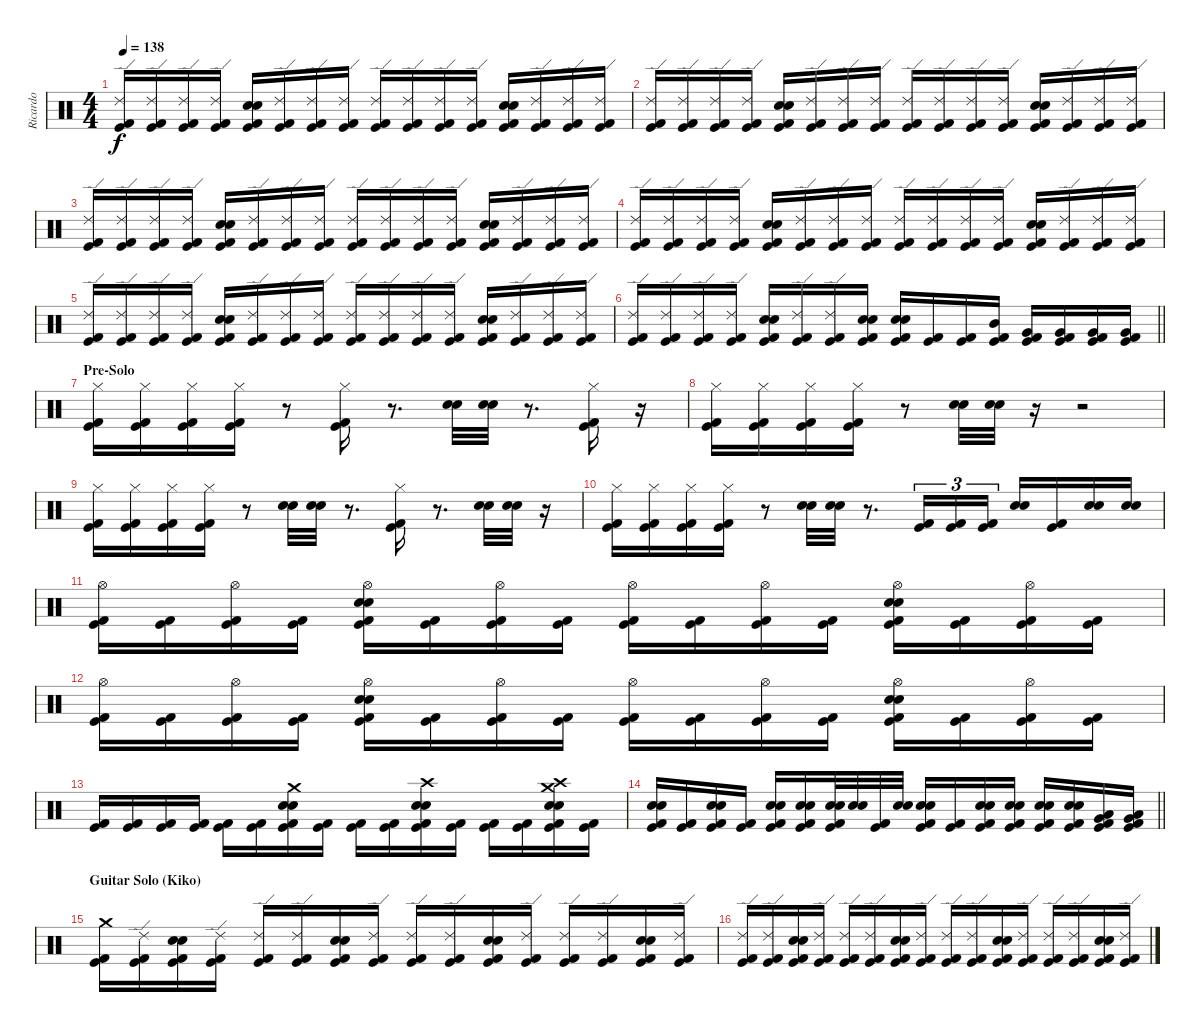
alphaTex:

\track ("Ricardo" "Ricardo") {instrument percussion}
\staff {score}
\articulation defaults
\ts (4 4)
\tempo 138
\clef neutral
\ks c
("Ride (edge) 2" "Kick (hit) 2" "Kick (hit)").16{dy f} ("Ride (edge) 2" "Kick (hit) 2" "Kick (hit)").16 ("Ride (edge) 2" "Kick (hit) 2" "Kick (hit)").16 ("Ride (edge) 2" "Kick (hit) 2" "Kick (hit)").16 ("Electric Snare (hit)" "Snare (hit) 2" "Kick (hit) 2" "Kick (hit)").16 ("Ride (edge) 2" "Kick (hit) 2" "Kick (hit)").16 ("Ride (edge) 2" "Kick (hit) 2" "Kick (hit)").16 ("Ride (edge) 2" "Kick (hit) 2" "Kick (hit)").16 ("Ride (edge) 2" "Kick (hit) 2" "Kick (hit)").16 ("Ride (edge) 2" "Kick (hit) 2" "Kick (hit)").16 ("Ride (edge) 2" "Kick (hit) 2" "Kick (hit)").16 ("Ride (edge) 2" "Kick (hit) 2" "Kick (hit)").16 ("Electric Snare (hit)" "Snare (hit) 2" "Kick (hit) 2" "Kick (hit)").16 ("Ride (edge) 2" "Kick (hit) 2" "Kick (hit)").16 ("Ride (edge) 2" "Kick (hit) 2" "Kick (hit)").16 ("Ride (edge) 2" "Kick (hit) 2" "Kick (hit)").16 |
("Ride (edge) 2" "Kick (hit) 2" "Kick (hit)").16 ("Ride (edge) 2" "Kick (hit) 2" "Kick (hit)").16 ("Ride (edge) 2" "Kick (hit) 2" "Kick (hit)").16 ("Ride (edge) 2" "Kick (hit) 2" "Kick (hit)").16 ("Electric Snare (hit)" "Snare (hit) 2" "Kick (hit) 2" "Kick (hit)").16 ("Ride (edge) 2" "Kick (hit) 2" "Kick (hit)").16 ("Ride (edge) 2" "Kick (hit) 2" "Kick (hit)").16 ("Ride (edge) 2" "Kick (hit) 2" "Kick (hit)").16 ("Ride (edge) 2" "Kick (hit) 2" "Kick (hit)").16 ("Ride (edge) 2" "Kick (hit) 2" "Kick (hit)").16 ("Ride (edge) 2" "Kick (hit) 2" "Kick (hit)").16 ("Ride (edge) 2" "Kick (hit) 2" "Kick (hit)").16 ("Electric Snare (hit)" "Snare (hit) 2" "Kick (hit) 2" "Kick (hit)").16 ("Ride (edge) 2" "Kick (hit) 2" "Kick (hit)").16 ("Ride (edge) 2" "Kick (hit) 2" "Kick (hit)").16 ("Ride (edge) 2" "Kick (hit) 2" "Kick (hit)").16 |
("Ride (edge) 2" "Kick (hit) 2" "Kick (hit)").16 ("Ride (edge) 2" "Kick (hit) 2" "Kick (hit)").16 ("Ride (edge) 2" "Kick (hit) 2" "Kick (hit)").16 ("Ride (edge) 2" "Kick (hit) 2" "Kick (hit)").16 ("Electric Snare (hit)" "Snare (hit) 2" "Kick (hit) 2" "Kick (hit)").16 ("Ride (edge) 2" "Kick (hit) 2" "Kick (hit)").16 ("Ride (edge) 2" "Kick (hit) 2" "Kick (hit)").16 ("Ride (edge) 2" "Kick (hit) 2" "Kick (hit)").16 ("Ride (edge) 2" "Kick (hit) 2" "Kick (hit)").16 ("Ride (edge) 2" "Kick (hit) 2" "Kick (hit)").16 ("Ride (edge) 2" "Kick (hit) 2" "Kick (hit)").16 ("Ride (edge) 2" "Kick (hit) 2" "Kick (hit)").16 ("Electric Snare (hit)" "Snare (hit) 2" "Kick (hit) 2" "Kick (hit)").16 ("Ride (edge) 2" "Kick (hit) 2" "Kick (hit)").16 ("Ride (edge) 2" "Kick (hit) 2" "Kick (hit)").16 ("Ride (edge) 2" "Kick (hit) 2" "Kick (hit)").16 |
("Ride (edge) 2" "Kick (hit) 2" "Kick (hit)").16 ("Ride (edge) 2" "Kick (hit) 2" "Kick (hit)").16 ("Ride (edge) 2" "Kick (hit) 2" "Kick (hit)").16 ("Ride (edge) 2" "Kick (hit) 2" "Kick (hit)").16 ("Electric Snare (hit)" "Snare (hit) 2" "Kick (hit) 2" "Kick (hit)").16 ("Ride (edge) 2" "Kick (hit) 2" "Kick (hit)").16 ("Ride (edge) 2" "Kick (hit) 2" "Kick (hit)").16 ("Ride (edge) 2" "Kick (hit) 2" "Kick (hit)").16 ("Ride (edge) 2" "Kick (hit) 2" "Kick (hit)").16 ("Ride (edge) 2" "Kick (hit) 2" "Kick (hit)").16 ("Ride (edge) 2" "Kick (hit) 2" "Kick (hit)").16 ("Ride (edge) 2" "Kick (hit) 2" "Kick (hit)").16 ("Electric Snare (hit)" "Snare (hit) 2" "Kick (hit) 2" "Kick (hit)").16 ("Ride (edge) 2" "Kick (hit) 2" "Kick (hit)").16 ("Ride (edge) 2" "Kick (hit) 2" "Kick (hit)").16 ("Ride (edge) 2" "Kick (hit) 2" "Kick (hit)").16 |
("Ride (edge) 2" "Kick (hit) 2" "Kick (hit)").16 ("Ride (edge) 2" "Kick (hit) 2" "Kick (hit)").16 ("Ride (edge) 2" "Kick (hit) 2" "Kick (hit)").16 ("Ride (edge) 2" "Kick (hit) 2" "Kick (hit)").16 ("Electric Snare (hit)" "Snare (hit) 2" "Kick (hit) 2" "Kick (hit)").16 ("Ride (edge) 2" "Kick (hit) 2" "Kick (hit)").16 ("Ride (edge) 2" "Kick (hit) 2" "Kick (hit)").16 ("Ride (edge) 2" "Kick (hit) 2" "Kick (hit)").16 ("Ride (edge) 2" "Kick (hit) 2" "Kick (hit)").16 ("Ride (edge) 2" "Kick (hit) 2" "Kick (hit)").16 ("Ride (edge) 2" "Kick (hit) 2" "Kick (hit)").16 ("Ride (edge) 2" "Kick (hit) 2" "Kick (hit)").16 ("Electric Snare (hit)" "Snare (hit) 2" "Kick (hit) 2" "Kick (hit)").16 ("Ride (edge) 2" "Kick (hit) 2" "Kick (hit)").16 ("Ride (edge) 2" "Kick (hit) 2" "Kick (hit)").16 ("Ride (edge) 2" "Kick (hit) 2" "Kick (hit)").16 |
\barLineRight lightlight
("Ride (edge) 2" "Kick (hit) 2" "Kick (hit)").16 ("Ride (edge) 2" "Kick (hit) 2" "Kick (hit)").16 ("Ride (edge) 2" "Kick (hit) 2" "Kick (hit)").16 ("Ride (edge) 2" "Kick (hit) 2" "Kick (hit)").16 ("Electric Snare (hit)" "Snare (hit) 2" "Kick (hit) 2" "Kick (hit)").16 ("Ride (edge) 2" "Kick (hit) 2" "Kick (hit)").16 ("Ride (edge) 2" "Kick (hit) 2" "Kick (hit)").16 ("Electric Snare (hit)" "Snare (hit) 2" "Kick (hit) 2" "Kick (hit)").16 ("Electric Snare (hit)" "Snare (hit) 2" "Kick (hit) 2" "Kick (hit)").16 ("Kick (hit) 2" "Kick (hit)").16 ("Kick (hit) 2" "Kick (hit)").16 ("Mid Tom (hit)" "Kick (hit) 2" "Kick (hit)").16 ("Very Low Tom (hit)" "Kick (hit) 2" "Kick (hit)").16 ("Very Low Tom (hit)" "Kick (hit) 2" "Kick (hit)").16 ("Very Low Tom (hit)" "Kick (hit) 2" "Kick (hit)").16 ("Very Low Tom (hit)" "Kick (hit) 2" "Kick (hit)").16 |
\section ("" "Pre-Solo")
("Hi-Hat (closed)" "Kick (hit) 2" "Kick (hit)").16 ("Hi-Hat (closed)" "Kick (hit) 2" "Kick (hit)").16 ("Hi-Hat (closed)" "Kick (hit) 2" "Kick (hit)").16 ("Hi-Hat (closed)" "Kick (hit) 2" "Kick (hit)").16 r.8 ("Hi-Hat (closed)" "Kick (hit) 2" "Kick (hit)").16 r.8{d} ("Electric Snare (hit)" "Snare (hit) 2").32 ("Electric Snare (hit)" "Snare (hit) 2").32 r.8{d} ("Hi-Hat (closed)" "Kick (hit) 2" "Kick (hit)").16 r.16 |
("Hi-Hat (closed)" "Kick (hit) 2" "Kick (hit)").16 ("Hi-Hat (closed)" "Kick (hit) 2" "Kick (hit)").16 ("Hi-Hat (closed)" "Kick (hit) 2" "Kick (hit)").16 ("Hi-Hat (closed)" "Kick (hit) 2" "Kick (hit)").16 r.8 ("Electric Snare (hit)" "Snare (hit) 2").32 ("Electric Snare (hit)" "Snare (hit) 2").32 r.16 r.2 |
("Hi-Hat (closed)" "Kick (hit) 2" "Kick (hit)").16 ("Hi-Hat (closed)" "Kick (hit) 2" "Kick (hit)").16 ("Hi-Hat (closed)" "Kick (hit) 2" "Kick (hit)").16 ("Hi-Hat (closed)" "Kick (hit) 2" "Kick (hit)").16 r.8 ("Electric Snare (hit)" "Snare (hit) 2").32 ("Electric Snare (hit)" "Snare (hit) 2").32 r.8{d} ("Hi-Hat (closed)" "Kick (hit) 2" "Kick (hit)").16 r.8{d} ("Electric Snare (hit)" "Snare (hit) 2").32 ("Electric Snare (hit)" "Snare (hit) 2").32 r.16 |
("Hi-Hat (closed)" "Kick (hit) 2" "Kick (hit)").16 ("Hi-Hat (closed)" "Kick (hit) 2" "Kick (hit)").16 ("Hi-Hat (closed)" "Kick (hit) 2" "Kick (hit)").16 ("Hi-Hat (closed)" "Kick (hit) 2" "Kick (hit)").16 r.8 ("Electric Snare (hit)" "Snare (hit) 2").32 ("Snare (hit) 2" "Electric Snare (hit)").32 r.8{d} ("Kick (hit) 2" "Kick (hit)").16{tu (3 2)} ("Kick (hit) 2" "Kick (hit)").16{tu (3 2)} ("Kick (hit) 2" "Kick (hit)").16{tu (3 2)} ("Electric Snare (hit)" "Snare (hit) 2").16 ("Kick (hit) 2" "Kick (hit)").16 ("Electric Snare (hit)" "Snare (hit) 2").16 ("Snare (hit) 2" "Electric Snare (hit)").16 |
("Hi-Hat (open)" "Kick (hit) 2" "Kick (hit)").16 ("Kick (hit) 2" "Kick (hit)").16 ("Hi-Hat (open)" "Kick (hit) 2" "Kick (hit)").16 ("Kick (hit) 2" "Kick (hit)").16 ("Electric Snare (hit)" "Snare (hit) 2" "Hi-Hat (open)" "Kick (hit) 2" "Kick (hit)").16 ("Kick (hit) 2" "Kick (hit)").16 ("Hi-Hat (open)" "Kick (hit)" "Kick (hit) 2").16 ("Kick (hit) 2" "Kick (hit)").16 ("Hi-Hat (open)" "Kick (hit) 2" "Kick (hit)").16 ("Kick (hit) 2" "Kick (hit)").16 ("Hi-Hat (open)" "Kick (hit) 2" "Kick (hit)").16 ("Kick (hit) 2" "Kick (hit)").16 ("Electric Snare (hit)" "Snare (hit) 2" "Hi-Hat (open)" "Kick (hit) 2" "Kick (hit)").16 ("Kick (hit) 2" "Kick (hit)").16 ("Hi-Hat (open)" "Kick (hit) 2" "Kick (hit)").16 ("Kick (hit) 2" "Kick (hit)").16 |
("Hi-Hat (open)" "Kick (hit) 2" "Kick (hit)").16 ("Kick (hit) 2" "Kick (hit)").16 ("Hi-Hat (open)" "Kick (hit) 2" "Kick (hit)").16 ("Kick (hit) 2" "Kick (hit)").16 ("Electric Snare (hit)" "Snare (hit) 2" "Hi-Hat (open)" "Kick (hit) 2" "Kick (hit)").16 ("Kick (hit) 2" "Kick (hit)").16 ("Hi-Hat (open)" "Kick (hit)" "Kick (hit) 2").16 ("Kick (hit) 2" "Kick (hit)").16 ("Hi-Hat (open)" "Kick (hit) 2" "Kick (hit)").16 ("Kick (hit) 2" "Kick (hit)").16 ("Hi-Hat (open)" "Kick (hit) 2" "Kick (hit)").16 ("Kick (hit) 2" "Kick (hit)").16 ("Electric Snare (hit)" "Snare (hit) 2" "Hi-Hat (open)" "Kick (hit) 2" "Kick (hit)").16 ("Kick (hit) 2" "Kick (hit)").16 ("Hi-Hat (open)" "Kick (hit) 2" "Kick (hit)").16 ("Kick (hit) 2" "Kick (hit)").16 |
("Kick (hit) 2" "Kick (hit)").16 ("Kick (hit) 2" "Kick (hit)").16 ("Kick (hit) 2" "Kick (hit)").16 ("Kick (hit) 2" "Kick (hit)").16 ("Kick (hit) 2" "Kick (hit)").16 ("Kick (hit) 2" "Kick (hit)").16 ("Crash medium (hit)" "Electric Snare (hit)" "Snare (hit) 2" "Kick (hit)" "Kick (hit) 2").16 ("Kick (hit) 2" "Kick (hit)").16 ("Kick (hit) 2" "Kick (hit)").16 ("Kick (hit) 2" "Kick (hit)").16 ("Crash high (hit)" "Electric Snare (hit)" "Snare (hit) 2" "Kick (hit) 2" "Kick (hit)").16 ("Kick (hit) 2" "Kick (hit)").16 ("Kick (hit) 2" "Kick (hit)").16 ("Kick (hit) 2" "Kick (hit)").16 ("Crash high (hit)" "Crash medium (hit)" "Electric Snare (hit)" "Snare (hit) 2" "Kick (hit) 2" "Kick (hit)").16 ("Kick (hit) 2" "Kick (hit)").16 |
\barLineRight lightlight
("Snare (hit) 2" "Electric Snare (hit)" "Kick (hit) 2" "Kick (hit)").16 ("Kick (hit) 2" "Kick (hit)").16 ("Snare (hit) 2" "Electric Snare (hit)" "Kick (hit) 2" "Kick (hit)").16 ("Kick (hit) 2" "Kick (hit)").16 ("Electric Snare (hit)" "Snare (hit) 2" "Kick (hit) 2" "Kick (hit)").16 ("Electric Snare (hit)" "Snare (hit) 2" "Kick (hit) 2" "Kick (hit)").16 ("Electric Snare (hit)" "Snare (hit) 2" "Kick (hit)" "Kick (hit) 2").32 ("Electric Snare (hit)" "Snare (hit) 2").32 ("Kick (hit) 2" "Kick (hit)").32 ("Electric Snare (hit)" "Snare (hit) 2").32 ("Snare (hit) 2" "Electric Snare (hit)" "Kick (hit) 2" "Kick (hit)").16 ("Kick (hit) 2" "Kick (hit)").16 ("Snare (hit) 2" "Electric Snare (hit)" "Kick (hit) 2" "Kick (hit)").16 ("Snare (hit) 2" "Electric Snare (hit)" "Kick (hit) 2" "Kick (hit)").16 ("Snare (hit) 2" "Electric Snare (hit)" "Kick (hit) 2" "Kick (hit)").16 ("Snare (hit) 2" "Electric Snare (hit)" "Kick (hit) 2" "Kick (hit)").16 ("Low Tom (hit)" "Very Low Tom (hit)" "Kick (hit) 2" "Kick (hit)").16 ("Low Tom (hit)" "Very Low Tom (hit)" "Kick (hit) 2" "Kick (hit)").16 |
\section ("" "Guitar Solo (Kiko)")
("Crash medium (hit)" "Kick (hit) 2" "Kick (hit)").16 ("Ride (edge) 2" "Kick (hit) 2" "Kick (hit)").16 ("Electric Snare (hit)" "Snare (hit) 2" "Kick (hit) 2" "Kick (hit)").16 ("Ride (edge) 2" "Kick (hit) 2" "Kick (hit)").16 ("Ride (edge) 2" "Kick (hit) 2" "Kick (hit)").16 ("Ride (edge) 2" "Kick (hit) 2" "Kick (hit)").16 ("Electric Snare (hit)" "Snare (hit) 2" "Kick (hit) 2" "Kick (hit)").16 ("Ride (edge) 2" "Kick (hit) 2" "Kick (hit)").16 ("Ride (edge) 2" "Kick (hit) 2" "Kick (hit)").16 ("Ride (edge) 2" "Kick (hit) 2" "Kick (hit)").16 ("Electric Snare (hit)" "Snare (hit) 2" "Kick (hit) 2" "Kick (hit)").16 ("Ride (edge) 2" "Kick (hit) 2" "Kick (hit)").16 ("Ride (edge) 2" "Kick (hit) 2" "Kick (hit)").16 ("Ride (edge) 2" "Kick (hit) 2" "Kick (hit)").16 ("Electric Snare (hit)" "Snare (hit) 2" "Kick (hit) 2" "Kick (hit)").16 ("Ride (edge) 2" "Kick (hit) 2" "Kick (hit)").16 |
("Ride (edge) 2" "Kick (hit) 2" "Kick (hit)").16 ("Ride (edge) 2" "Kick (hit) 2" "Kick (hit)").16 ("Electric Snare (hit)" "Snare (hit) 2" "Kick (hit) 2" "Kick (hit)").16 ("Ride (edge) 2" "Kick (hit) 2" "Kick (hit)").16 ("Ride (edge) 2" "Kick (hit) 2" "Kick (hit)").16 ("Ride (edge) 2" "Kick (hit) 2" "Kick (hit)").16 ("Electric Snare (hit)" "Snare (hit) 2" "Kick (hit) 2" "Kick (hit)").16 ("Ride (edge) 2" "Kick (hit) 2" "Kick (hit)").16 ("Ride (edge) 2" "Kick (hit) 2" "Kick (hit)").16 ("Ride (edge) 2" "Kick (hit) 2" "Kick (hit)").16 ("Electric Snare (hit)" "Snare (hit) 2" "Kick (hit) 2" "Kick (hit)").16 ("Ride (edge) 2" "Kick (hit) 2" "Kick (hit)").16 ("Ride (edge) 2" "Kick (hit) 2" "Kick (hit)").16 ("Ride (edge) 2" "Kick (hit) 2" "Kick (hit)").16 ("Electric Snare (hit)" "Snare (hit) 2" "Kick (hit) 2" "Kick (hit)").16 ("Ride (edge) 2" "Kick (hit) 2" "Kick (hit)").16
